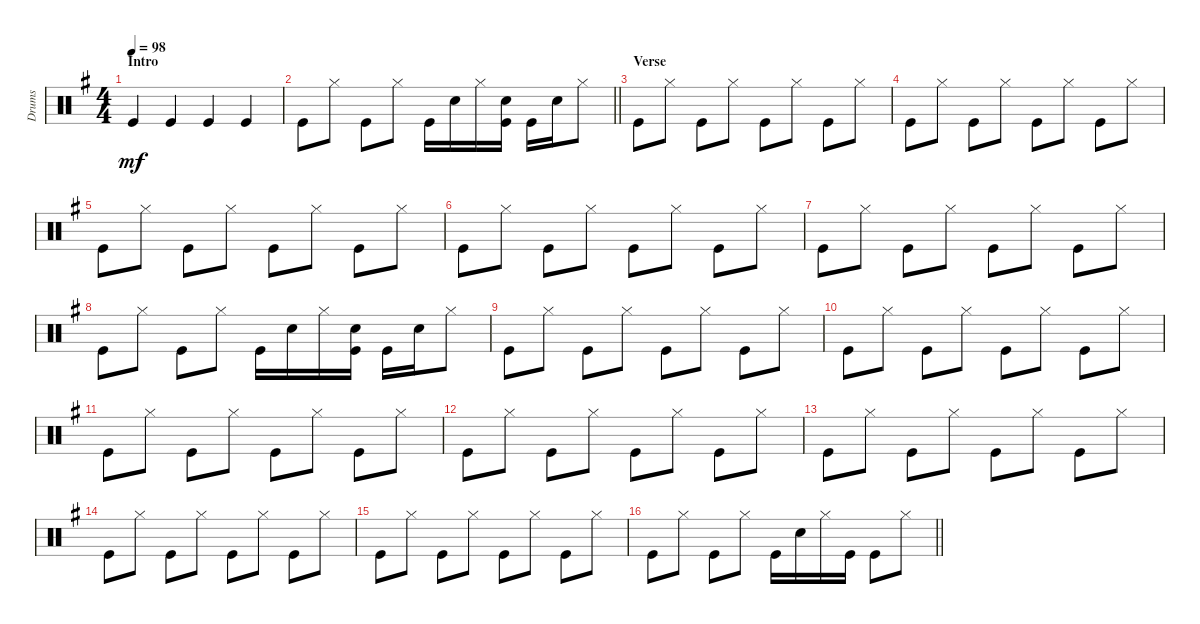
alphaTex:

\track ("Drums" "Drums") {instrument percussion}
\staff {score}
\articulation defaults
\ts (4 4)
\section ("" "Intro")
\tempo 98
\clef neutral
\ks g "Kick (hit)".4{dy mf} "Kick (hit)".4 "Kick (hit)".4 "Kick (hit)".4
|
\barLineRight lightlight "Kick (hit)".8 "Hi-Hat (closed)".8 "Kick (hit)".8 "Hi-Hat (closed)".8 "Kick (hit)".16 "Snare (hit) 2".16 "Hi-Hat (closed)".16
("Kick (hit)" "Snare (hit) 2").16 "Kick (hit)".16 "Snare (hit) 2".16 "Hi-Hat (closed)".8 |
\section ("" "Verse")
"Kick (hit)".8 "Hi-Hat (closed)".8 "Kick (hit)".8 "Hi-Hat (closed)".8 "Kick (hit)".8 "Hi-Hat (closed)".8 "Kick (hit)".8 "Hi-Hat (closed)".8 |
"Kick (hit)".8 "Hi-Hat (closed)".8 "Kick (hit)".8 "Hi-Hat (closed)".8 "Kick (hit)".8 "Hi-Hat (closed)".8 "Kick (hit)".8 "Hi-Hat (closed)".8 |
"Kick (hit)".8 "Hi-Hat (closed)".8 "Kick (hit)".8 "Hi-Hat (closed)".8 "Kick (hit)".8 "Hi-Hat (closed)".8 "Kick (hit)".8 "Hi-Hat (closed)".8 |
"Kick (hit)".8 "Hi-Hat (closed)".8 "Kick (hit)".8 "Hi-Hat (closed)".8 "Kick (hit)".8 "Hi-Hat (closed)".8 "Kick (hit)".8 "Hi-Hat (closed)".8 |
"Kick (hit)".8 "Hi-Hat (closed)".8 "Kick (hit)".8 "Hi-Hat (closed)".8 "Kick (hit)".8 "Hi-Hat (closed)".8 "Kick (hit)".8 "Hi-Hat (closed)".8 |
"Kick (hit)".8 "Hi-Hat (closed)".8 "Kick (hit)".8 "Hi-Hat (closed)".8 "Kick (hit)".16 "Snare (hit) 2".16 "Hi-Hat (closed)".16 ("Kick (hit)" "Snare (hit) 2").16 "Kick (hit)".16 "Snare (hit) 2".16 "Hi-Hat (closed)".8 |
"Kick (hit)".8 "Hi-Hat (closed)".8 "Kick (hit)".8 "Hi-Hat (closed)".8 "Kick (hit)".8 "Hi-Hat (closed)".8 "Kick (hit)".8 "Hi-Hat (closed)".8 |
"Kick (hit)".8 "Hi-Hat (closed)".8 "Kick (hit)".8 "Hi-Hat (closed)".8 "Kick (hit)".8 "Hi-Hat (closed)".8 "Kick (hit)".8 "Hi-Hat (closed)".8 |
"Kick (hit)".8 "Hi-Hat (closed)".8 "Kick (hit)".8 "Hi-Hat (closed)".8 "Kick (hit)".8 "Hi-Hat (closed)".8 "Kick (hit)".8 "Hi-Hat (closed)".8 |
"Kick (hit)".8 "Hi-Hat (closed)".8 "Kick (hit)".8 "Hi-Hat (closed)".8 "Kick (hit)".8 "Hi-Hat (closed)".8 "Kick (hit)".8 "Hi-Hat (closed)".8 |
"Kick (hit)".8 "Hi-Hat (closed)".8 "Kick (hit)".8 "Hi-Hat (closed)".8 "Kick (hit)".8 "Hi-Hat (closed)".8 "Kick (hit)".8 "Hi-Hat (closed)".8 |
"Kick (hit)".8 "Hi-Hat (closed)".8 "Kick (hit)".8 "Hi-Hat (closed)".8 "Kick (hit)".8 "Hi-Hat (closed)".8 "Kick (hit)".8 "Hi-Hat (closed)".8 |
"Kick (hit)".8 "Hi-Hat (closed)".8 "Kick (hit)".8 "Hi-Hat (closed)".8 "Kick (hit)".8 "Hi-Hat (closed)".8 "Kick (hit)".8 "Hi-Hat (closed)".8 |
\barLineRight lightlight "Kick (hit)".8 "Hi-Hat (closed)".8 "Kick (hit)".8 "Hi-Hat (closed)".8 "Kick (hit)".16 "Snare (hit) 2".16 "Hi-Hat (closed)".16 "Kick (hit)".16 "Kick (hit)".8 "Hi-Hat (closed)".8
